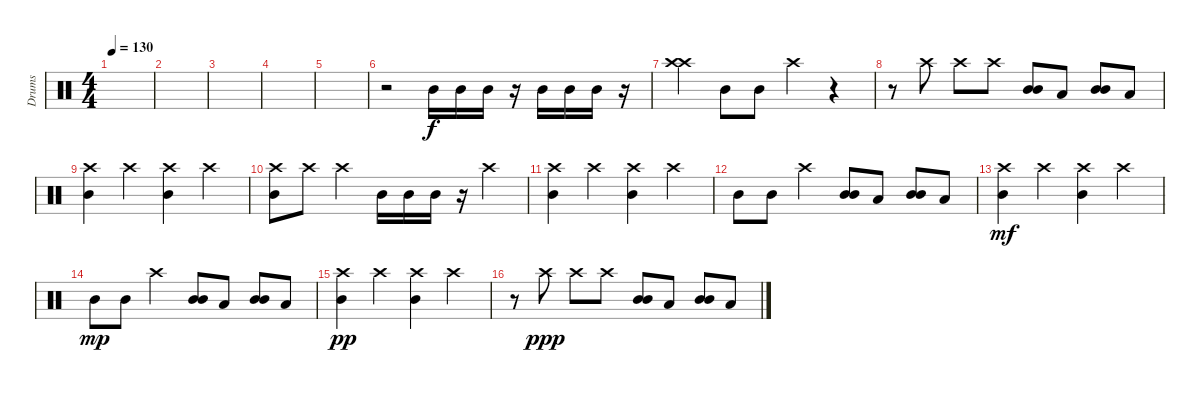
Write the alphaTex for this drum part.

\track ("Drums" "Drums") {instrument percussion}
\staff {score}
\articulation defaults
\ts (4 4)
\tempo 130
\clef neutral
\ks c
|
|
|
|
|
r.2 "Mid Tom (hit)".16 "Mid Tom (hit)".16 "Mid Tom (hit)".16 r.16 "Mid Tom (hit)".16 "Mid Tom (hit)".16 "Mid Tom (hit)".16 r.16 |
("Crash high (hit)" "Crash high (hit)").4 "Mid Tom (hit)".8 "Mid Tom (hit)".8 "Crash high (hit)".4 r.4 |
r.8 "Crash high (hit)".8 "Crash high (hit)".8 "Crash high (hit)".8 ("Mid Tom (hit)" "Mid Tom (hit)").8 "Low Tom (hit)".8 ("Mid Tom (hit)" "Mid Tom (hit)").8 "Low Tom (hit)".8 |
("Crash high (hit)" "Mid Tom (hit)").4 "Crash high (hit)".4 ("Crash high (hit)" "Mid Tom (hit)").4 "Crash high (hit)".4 |
("Crash high (hit)" "Mid Tom (hit)").8 "Crash high (hit)".8 "Crash high (hit)".4 "Mid Tom (hit)".16 "Mid Tom (hit)".16 "Mid Tom (hit)".16 r.16 "Crash high (hit)".4 |
("Crash high (hit)" "Mid Tom (hit)").4 "Crash high (hit)".4 ("Crash high (hit)" "Mid Tom (hit)").4 "Crash high (hit)".4 |
"Mid Tom (hit)".8 "Mid Tom (hit)".8 "Crash high (hit)".4 ("Mid Tom (hit)" "Mid Tom (hit)").8 "Low Tom (hit)".8 ("Mid Tom (hit)" "Mid Tom (hit)").8 "Low Tom (hit)".8 |
("Crash high (hit)" "Mid Tom (hit)").4{dy mf} "Crash high (hit)".4 ("Crash high (hit)" "Mid Tom (hit)").4 "Crash high (hit)".4 |
"Mid Tom (hit)".8{dy mp} "Mid Tom (hit)".8 "Crash high (hit)".4 ("Mid Tom (hit)" "Mid Tom (hit)").8 "Low Tom (hit)".8 ("Mid Tom (hit)" "Mid Tom (hit)").8 "Low Tom (hit)".8 |
("Crash high (hit)" "Mid Tom (hit)").4{dy pp} "Crash high (hit)".4 ("Crash high (hit)" "Mid Tom (hit)").4 "Crash high (hit)".4 |
r.8 "Crash high (hit)".8{dy ppp} "Crash high (hit)".8 "Crash high (hit)".8 ("Mid Tom (hit)" "Mid Tom (hit)").8 "Low Tom (hit)".8 ("Mid Tom (hit)" "Mid Tom (hit)").8 "Low Tom (hit)".8
